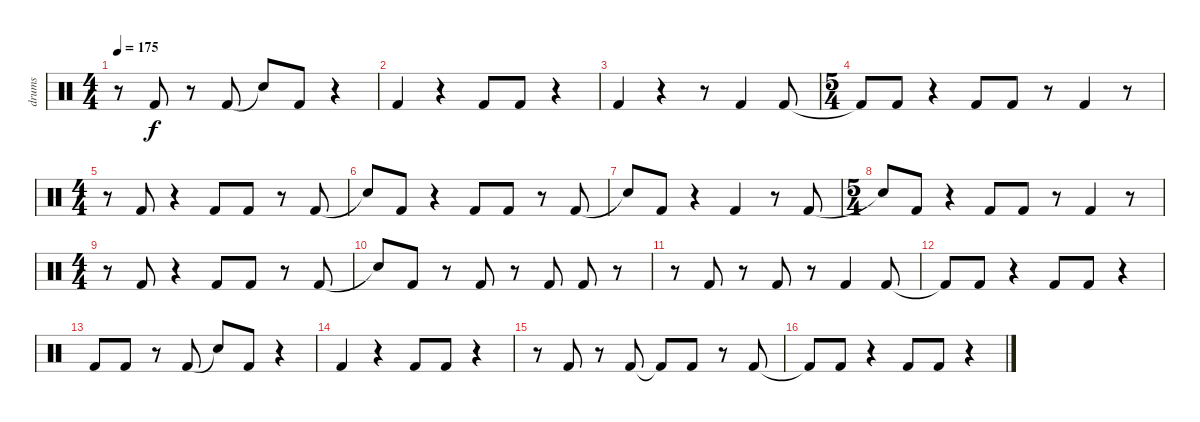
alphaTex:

\track ("drums" "drums") {instrument percussion}
\staff {score}
\articulation defaults
\ts (4 4)
\tempo 175
\clef neutral
\ks c
r.8{dy f} "Kick (hit) 2".8 r.8 "Kick (hit) 2".8 "Snare (hit)"{t}.8 "Kick (hit) 2".8 r.4 |
"Kick (hit) 2".4 r.4 "Kick (hit) 2".8 "Kick (hit) 2".8 r.4 |
"Kick (hit) 2".4 r.4 r.8 "Kick (hit) 2".4 "Kick (hit) 2".8 |
\ts (5 4)
"Kick (hit) 2"{t}.8 "Kick (hit) 2".8 r.4 "Kick (hit) 2".8 "Kick (hit) 2".8 r.8 "Kick (hit) 2".4 r.8 |
\ts (4 4)
r.8 "Kick (hit) 2".8 r.4 "Kick (hit) 2".8 "Kick (hit) 2".8 r.8 "Kick (hit) 2".8 |
"Snare (hit)"{t}.8 "Kick (hit) 2".8 r.4 "Kick (hit) 2".8 "Kick (hit) 2".8 r.8 "Kick (hit) 2".8 |
"Snare (hit)"{t}.8 "Kick (hit) 2".8 r.4 "Kick (hit) 2".4 r.8 "Kick (hit) 2".8 |
\ts (5 4)
"Snare (hit)"{t}.8 "Kick (hit) 2".8 r.4 "Kick (hit) 2".8 "Kick (hit) 2".8 r.8 "Kick (hit) 2".4 r.8 |
\ts (4 4)
r.8 "Kick (hit) 2".8 r.4 "Kick (hit) 2".8 "Kick (hit) 2".8 r.8 "Kick (hit) 2".8 |
"Snare (hit)"{t}.8 "Kick (hit) 2".8 r.8 "Kick (hit) 2".8 r.8 "Kick (hit) 2".8 "Kick (hit) 2".8 r.8 |
r.8 "Kick (hit) 2".8 r.8 "Kick (hit) 2".8 r.8 "Kick (hit) 2".4 "Kick (hit) 2".8 |
"Kick (hit) 2"{t}.8 "Kick (hit) 2".8 r.4 "Kick (hit) 2".8 "Kick (hit) 2".8 r.4 |
"Kick (hit) 2".8 "Kick (hit) 2".8 r.8 "Kick (hit) 2".8 "Snare (hit)"{t}.8 "Kick (hit) 2".8 r.4 |
"Kick (hit) 2".4 r.4 "Kick (hit) 2".8 "Kick (hit) 2".8 r.4 |
r.8 "Kick (hit) 2".8 r.8 "Kick (hit) 2".8 "Kick (hit) 2"{t}.8 "Kick (hit) 2".8 r.8 "Kick (hit) 2".8 |
"Kick (hit) 2"{t}.8 "Kick (hit) 2".8 r.4 "Kick (hit) 2".8 "Kick (hit) 2".8 r.4
